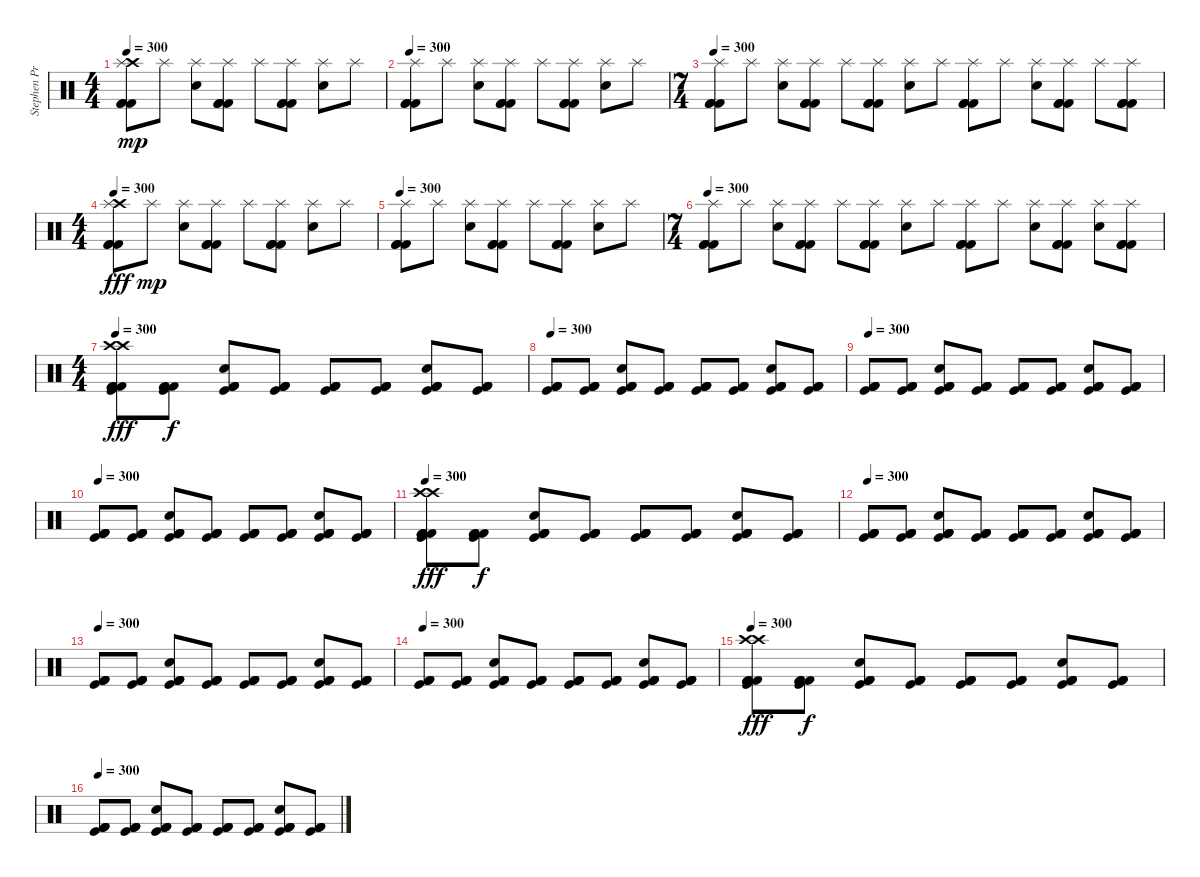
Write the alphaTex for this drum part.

\track ("Stephen Priestly  (Drums)" "Stephen Pr") {instrument percussion}
\staff {score}
\articulation defaults
\ts (4 4)
\tempo 300
\clef neutral
\ks c
("Crash high (hit)" "Splash (hit)" "Kick (hit) 2" "Kick (hit) 2" "Kick (hit) 2").8{dy mp} "Splash (hit)".8 ("Splash (hit)" "Electric Snare (hit)").8 ("Splash (hit)" "Kick (hit) 2" "Kick (hit) 2" "Kick (hit) 2").8 "Splash (hit)".8 ("Splash (hit)" "Kick (hit) 2" "Kick (hit) 2" "Kick (hit) 2").8 ("Splash (hit)" "Electric Snare (hit)").8 "Splash (hit)".8 |
\tempo 300
("Splash (hit)" "Kick (hit) 2" "Kick (hit) 2" "Kick (hit) 2").8 "Splash (hit)".8 ("Splash (hit)" "Electric Snare (hit)").8 ("Splash (hit)" "Kick (hit) 2" "Kick (hit) 2" "Kick (hit) 2").8 "Splash (hit)".8 ("Splash (hit)" "Kick (hit) 2" "Kick (hit) 2" "Kick (hit) 2").8 ("Splash (hit)" "Electric Snare (hit)").8 "Splash (hit)".8 |
\ts (7 4)
\tempo 300
("Splash (hit)" "Kick (hit) 2" "Kick (hit) 2" "Kick (hit) 2").8 "Splash (hit)".8 ("Splash (hit)" "Electric Snare (hit)").8 ("Splash (hit)" "Kick (hit) 2" "Kick (hit) 2" "Kick (hit) 2").8 "Splash (hit)".8 ("Splash (hit)" "Kick (hit) 2" "Kick (hit) 2" "Kick (hit) 2").8 ("Splash (hit)" "Electric Snare (hit)").8 "Splash (hit)".8 ("Splash (hit)" "Kick (hit) 2" "Kick (hit) 2" "Kick (hit) 2").8 "Splash (hit)".8 ("Splash (hit)" "Electric Snare (hit)").8 ("Splash (hit)" "Kick (hit) 2" "Kick (hit) 2" "Kick (hit) 2").8 "Splash (hit)".8 ("Splash (hit)" "Kick (hit) 2" "Kick (hit) 2" "Kick (hit) 2").8 |
\ts (4 4)
\tempo 300
("Crash high (hit)" "Splash (hit)" "Kick (hit) 2" "Kick (hit) 2" "Kick (hit) 2").8{dy fff} "Splash (hit)".8{dy mp} ("Splash (hit)" "Electric Snare (hit)").8 ("Splash (hit)" "Kick (hit) 2" "Kick (hit) 2" "Kick (hit) 2").8 "Splash (hit)".8 ("Splash (hit)" "Kick (hit) 2" "Kick (hit) 2" "Kick (hit) 2").8 ("Splash (hit)" "Electric Snare (hit)").8 "Splash (hit)".8 |
\tempo 300
("Splash (hit)" "Kick (hit) 2" "Kick (hit) 2" "Kick (hit) 2").8 "Splash (hit)".8 ("Splash (hit)" "Electric Snare (hit)").8 ("Splash (hit)" "Kick (hit) 2" "Kick (hit) 2" "Kick (hit) 2").8 "Splash (hit)".8 ("Splash (hit)" "Kick (hit) 2" "Kick (hit) 2" "Kick (hit) 2").8 ("Splash (hit)" "Electric Snare (hit)").8 "Splash (hit)".8 |
\ts (7 4)
\tempo 300
("Splash (hit)" "Kick (hit) 2" "Kick (hit) 2" "Kick (hit) 2").8 "Splash (hit)".8 ("Splash (hit)" "Electric Snare (hit)").8 ("Splash (hit)" "Kick (hit) 2" "Kick (hit) 2" "Kick (hit) 2").8 "Splash (hit)".8 ("Splash (hit)" "Kick (hit) 2" "Kick (hit) 2" "Kick (hit) 2").8 ("Splash (hit)" "Electric Snare (hit)").8 "Splash (hit)".8 ("Splash (hit)" "Kick (hit) 2" "Kick (hit) 2" "Kick (hit) 2").8 "Splash (hit)".8 ("Splash (hit)" "Electric Snare (hit)").8 ("Splash (hit)" "Kick (hit) 2" "Kick (hit) 2" "Kick (hit) 2").8 ("Splash (hit)" "Electric Snare (hit)").8 ("Splash (hit)" "Kick (hit) 2" "Kick (hit) 2" "Kick (hit) 2").8 |
\ts (4 4)
\tempo 300
("Crash high (hit)" "Crash high (hit)" "Kick (hit)" "Kick (hit) 2" "Kick (hit) 2" "Kick (hit) 2").8{dy fff} ("Kick (hit)" "Kick (hit) 2" "Kick (hit) 2" "Kick (hit) 2").8{dy f} ("Electric Snare (hit)" "Kick (hit)" "Kick (hit) 2" "Kick (hit) 2" "Kick (hit) 2").8 ("Kick (hit)" "Kick (hit) 2" "Kick (hit) 2" "Kick (hit) 2").8 ("Kick (hit)" "Kick (hit) 2" "Kick (hit) 2" "Kick (hit) 2").8 ("Kick (hit)" "Kick (hit) 2" "Kick (hit) 2" "Kick (hit) 2").8 ("Electric Snare (hit)" "Kick (hit)" "Kick (hit) 2" "Kick (hit) 2" "Kick (hit) 2").8 ("Kick (hit)" "Kick (hit) 2" "Kick (hit) 2" "Kick (hit) 2").8 |
\tempo 300
("Kick (hit)" "Kick (hit) 2" "Kick (hit) 2" "Kick (hit) 2").8 ("Kick (hit)" "Kick (hit) 2" "Kick (hit) 2" "Kick (hit) 2").8 ("Electric Snare (hit)" "Kick (hit)" "Kick (hit) 2" "Kick (hit) 2" "Kick (hit) 2").8 ("Kick (hit)" "Kick (hit) 2" "Kick (hit) 2" "Kick (hit) 2").8 ("Kick (hit)" "Kick (hit) 2" "Kick (hit) 2" "Kick (hit) 2").8 ("Kick (hit)" "Kick (hit) 2" "Kick (hit) 2" "Kick (hit) 2").8 ("Electric Snare (hit)" "Kick (hit)" "Kick (hit) 2" "Kick (hit) 2" "Kick (hit) 2").8 ("Kick (hit)" "Kick (hit) 2" "Kick (hit) 2" "Kick (hit) 2").8 |
\tempo 300
("Kick (hit)" "Kick (hit) 2" "Kick (hit) 2" "Kick (hit) 2").8 ("Kick (hit)" "Kick (hit) 2" "Kick (hit) 2" "Kick (hit) 2").8 ("Electric Snare (hit)" "Kick (hit)" "Kick (hit) 2" "Kick (hit) 2" "Kick (hit) 2").8 ("Kick (hit)" "Kick (hit) 2" "Kick (hit) 2" "Kick (hit) 2").8 ("Kick (hit)" "Kick (hit) 2" "Kick (hit) 2" "Kick (hit) 2").8 ("Kick (hit)" "Kick (hit) 2" "Kick (hit) 2" "Kick (hit) 2").8 ("Electric Snare (hit)" "Kick (hit)" "Kick (hit) 2" "Kick (hit) 2" "Kick (hit) 2").8 ("Kick (hit)" "Kick (hit) 2" "Kick (hit) 2" "Kick (hit) 2").8 |
\tempo 300
("Kick (hit)" "Kick (hit) 2" "Kick (hit) 2" "Kick (hit) 2").8 ("Kick (hit)" "Kick (hit) 2" "Kick (hit) 2" "Kick (hit) 2").8 ("Electric Snare (hit)" "Kick (hit)" "Kick (hit) 2" "Kick (hit) 2" "Kick (hit) 2").8 ("Kick (hit)" "Kick (hit) 2" "Kick (hit) 2" "Kick (hit) 2").8 ("Kick (hit)" "Kick (hit) 2" "Kick (hit) 2" "Kick (hit) 2").8 ("Kick (hit)" "Kick (hit) 2" "Kick (hit) 2" "Kick (hit) 2").8 ("Electric Snare (hit)" "Kick (hit)" "Kick (hit) 2" "Kick (hit) 2" "Kick (hit) 2").8 ("Kick (hit)" "Kick (hit) 2" "Kick (hit) 2" "Kick (hit) 2").8 |
\tempo 300
("Crash high (hit)" "Crash high (hit)" "Kick (hit)" "Kick (hit) 2" "Kick (hit) 2" "Kick (hit) 2").8{dy fff} ("Kick (hit)" "Kick (hit) 2" "Kick (hit) 2" "Kick (hit) 2").8{dy f} ("Electric Snare (hit)" "Kick (hit)" "Kick (hit) 2" "Kick (hit) 2" "Kick (hit) 2").8 ("Kick (hit)" "Kick (hit) 2" "Kick (hit) 2" "Kick (hit) 2").8 ("Kick (hit)" "Kick (hit) 2" "Kick (hit) 2" "Kick (hit) 2").8 ("Kick (hit)" "Kick (hit) 2" "Kick (hit) 2" "Kick (hit) 2").8 ("Electric Snare (hit)" "Kick (hit)" "Kick (hit) 2" "Kick (hit) 2" "Kick (hit) 2").8 ("Kick (hit)" "Kick (hit) 2" "Kick (hit) 2" "Kick (hit) 2").8 |
\tempo 300
("Kick (hit)" "Kick (hit) 2" "Kick (hit) 2" "Kick (hit) 2").8 ("Kick (hit)" "Kick (hit) 2" "Kick (hit) 2" "Kick (hit) 2").8 ("Electric Snare (hit)" "Kick (hit)" "Kick (hit) 2" "Kick (hit) 2" "Kick (hit) 2").8 ("Kick (hit)" "Kick (hit) 2" "Kick (hit) 2" "Kick (hit) 2").8 ("Kick (hit)" "Kick (hit) 2" "Kick (hit) 2" "Kick (hit) 2").8 ("Kick (hit)" "Kick (hit) 2" "Kick (hit) 2" "Kick (hit) 2").8 ("Electric Snare (hit)" "Kick (hit)" "Kick (hit) 2" "Kick (hit) 2" "Kick (hit) 2").8 ("Kick (hit)" "Kick (hit) 2" "Kick (hit) 2" "Kick (hit) 2").8 |
\tempo 300
("Kick (hit)" "Kick (hit) 2" "Kick (hit) 2" "Kick (hit) 2").8 ("Kick (hit)" "Kick (hit) 2" "Kick (hit) 2" "Kick (hit) 2").8 ("Electric Snare (hit)" "Kick (hit)" "Kick (hit) 2" "Kick (hit) 2" "Kick (hit) 2").8 ("Kick (hit)" "Kick (hit) 2" "Kick (hit) 2" "Kick (hit) 2").8 ("Kick (hit)" "Kick (hit) 2" "Kick (hit) 2" "Kick (hit) 2").8 ("Kick (hit)" "Kick (hit) 2" "Kick (hit) 2" "Kick (hit) 2").8 ("Electric Snare (hit)" "Kick (hit)" "Kick (hit) 2" "Kick (hit) 2" "Kick (hit) 2").8 ("Kick (hit)" "Kick (hit) 2" "Kick (hit) 2" "Kick (hit) 2").8 |
\tempo 300
("Kick (hit)" "Kick (hit) 2" "Kick (hit) 2" "Kick (hit) 2").8 ("Kick (hit)" "Kick (hit) 2" "Kick (hit) 2" "Kick (hit) 2").8 ("Electric Snare (hit)" "Kick (hit)" "Kick (hit) 2" "Kick (hit) 2" "Kick (hit) 2").8 ("Kick (hit)" "Kick (hit) 2" "Kick (hit) 2" "Kick (hit) 2").8 ("Kick (hit)" "Kick (hit) 2" "Kick (hit) 2" "Kick (hit) 2").8 ("Kick (hit)" "Kick (hit) 2" "Kick (hit) 2" "Kick (hit) 2").8 ("Electric Snare (hit)" "Kick (hit)" "Kick (hit) 2" "Kick (hit) 2" "Kick (hit) 2").8 ("Kick (hit)" "Kick (hit) 2" "Kick (hit) 2" "Kick (hit) 2").8 |
\tempo 300
("Crash high (hit)" "Crash high (hit)" "Kick (hit)" "Kick (hit) 2" "Kick (hit) 2" "Kick (hit) 2").8{dy fff} ("Kick (hit)" "Kick (hit) 2" "Kick (hit) 2" "Kick (hit) 2").8{dy f} ("Electric Snare (hit)" "Kick (hit)" "Kick (hit) 2" "Kick (hit) 2" "Kick (hit) 2").8 ("Kick (hit)" "Kick (hit) 2" "Kick (hit) 2" "Kick (hit) 2").8 ("Kick (hit)" "Kick (hit) 2" "Kick (hit) 2" "Kick (hit) 2").8 ("Kick (hit)" "Kick (hit) 2" "Kick (hit) 2" "Kick (hit) 2").8 ("Electric Snare (hit)" "Kick (hit)" "Kick (hit) 2" "Kick (hit) 2" "Kick (hit) 2").8 ("Kick (hit)" "Kick (hit) 2" "Kick (hit) 2" "Kick (hit) 2").8 |
\tempo 300
("Kick (hit)" "Kick (hit) 2" "Kick (hit) 2" "Kick (hit) 2").8 ("Kick (hit)" "Kick (hit) 2" "Kick (hit) 2" "Kick (hit) 2").8 ("Electric Snare (hit)" "Kick (hit)" "Kick (hit) 2" "Kick (hit) 2" "Kick (hit) 2").8 ("Kick (hit)" "Kick (hit) 2" "Kick (hit) 2" "Kick (hit) 2").8 ("Kick (hit)" "Kick (hit) 2" "Kick (hit) 2" "Kick (hit) 2").8 ("Kick (hit)" "Kick (hit) 2" "Kick (hit) 2" "Kick (hit) 2").8 ("Electric Snare (hit)" "Kick (hit)" "Kick (hit) 2" "Kick (hit) 2" "Kick (hit) 2").8 ("Kick (hit)" "Kick (hit) 2" "Kick (hit) 2" "Kick (hit) 2").8
